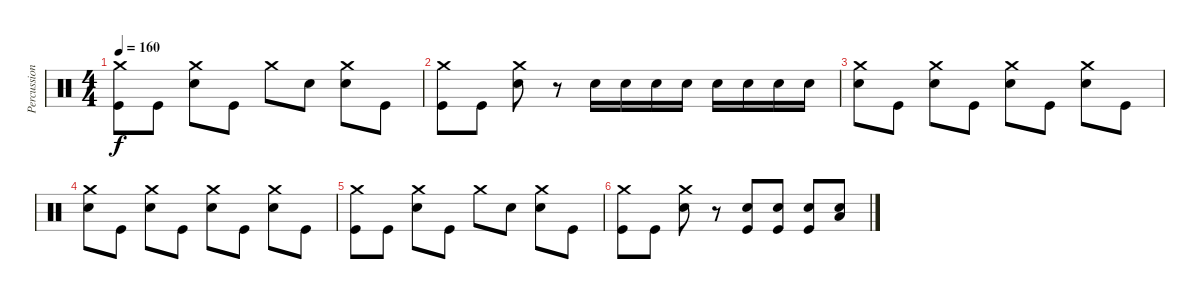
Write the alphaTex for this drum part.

\track ("Percussion" "Percussion") {instrument percussion}
\staff {score}
\articulation defaults
\ts (4 4)
\tempo 160
\clef neutral
\ks c
("Crash medium (hit)" "Kick (hit)").8{dy f} "Kick (hit)".8 ("Crash medium (hit)" "Electric Snare (hit)").8 "Kick (hit)".8 "Crash medium (hit)".8 "Electric Snare (hit)".8 ("Crash medium (hit)" "Electric Snare (hit)").8 "Kick (hit)".8 |
("Crash medium (hit)" "Kick (hit)").8 "Kick (hit)".8 ("Crash medium (hit)" "Electric Snare (hit)").8 r.8 "Electric Snare (hit)".16 "Electric Snare (hit)".16 "Electric Snare (hit)".16 "Electric Snare (hit)".16 "Electric Snare (hit)".16 "Electric Snare (hit)".16 "Electric Snare (hit)".16 "Electric Snare (hit)".16 |
("Crash medium (hit)" "Electric Snare (hit)").8 "Kick (hit)".8 ("Crash medium (hit)" "Electric Snare (hit)").8 "Kick (hit)".8 ("Crash medium (hit)" "Electric Snare (hit)").8 "Kick (hit)".8 ("Crash medium (hit)" "Electric Snare (hit)").8 "Kick (hit)".8 |
("Crash medium (hit)" "Electric Snare (hit)").8 "Kick (hit)".8 ("Crash medium (hit)" "Electric Snare (hit)").8 "Kick (hit)".8 ("Crash medium (hit)" "Electric Snare (hit)").8 "Kick (hit)".8 ("Crash medium (hit)" "Electric Snare (hit)").8 "Kick (hit)".8 |
("Crash medium (hit)" "Kick (hit)").8 "Kick (hit)".8 ("Crash medium (hit)" "Electric Snare (hit)").8 "Kick (hit)".8 "Crash medium (hit)".8 "Electric Snare (hit)".8 ("Crash medium (hit)" "Electric Snare (hit)").8 "Kick (hit)".8 |
("Crash medium (hit)" "Kick (hit)").8 "Kick (hit)".8 ("Crash medium (hit)" "Electric Snare (hit)").8 r.8 ("Kick (hit)" "Electric Snare (hit)").8 ("Kick (hit)" "Electric Snare (hit)").8 ("Kick (hit)" "Electric Snare (hit)").8 ("Low Tom (hit)" "Electric Snare (hit)").8
